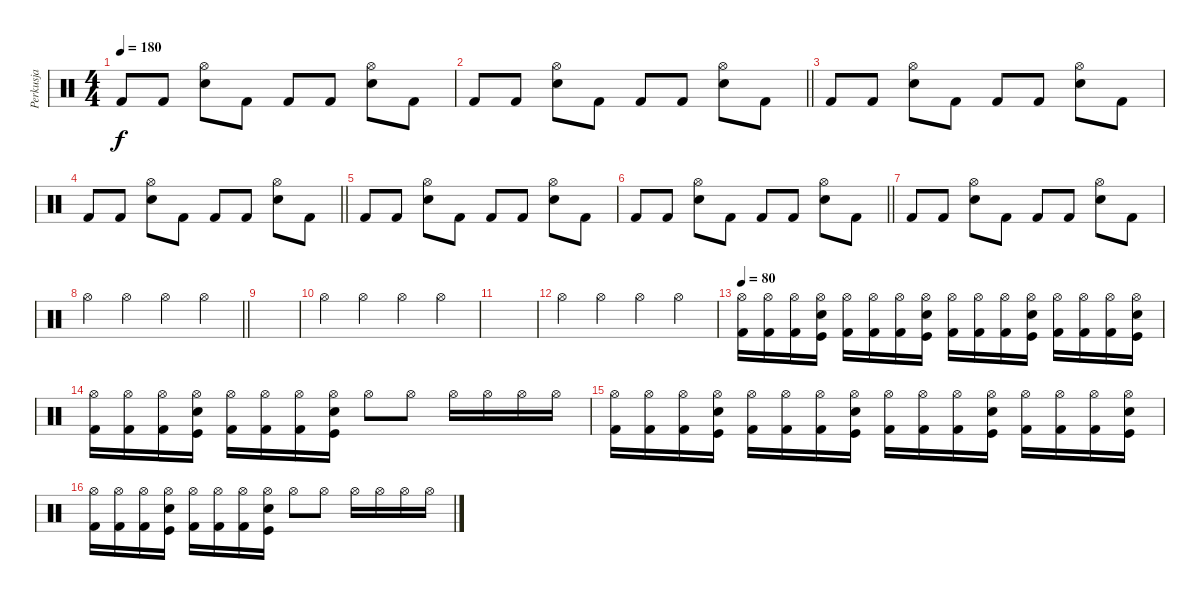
\track ("Perkusja" "Perkusja") {instrument percussion}
\staff {score}
\articulation defaults
\ts (4 4)
\tempo 180
\clef neutral
\ks c "Kick (hit) 2".8{dy f} "Kick (hit) 2".8
("Snare (hit) 2" "Hi-Hat (open)").8 "Kick (hit) 2".8 "Kick (hit) 2".8 "Kick (hit) 2".8 ("Snare (hit) 2" "Hi-Hat (open)").8 "Kick (hit) 2".8 |
\barLineRight lightlight "Kick (hit) 2".8 "Kick (hit) 2".8
("Snare (hit) 2" "Hi-Hat (open)").8 "Kick (hit) 2".8 "Kick (hit) 2".8 "Kick (hit) 2".8 ("Snare (hit) 2" "Hi-Hat (open)").8 "Kick (hit) 2".8 |
"Kick (hit) 2".8 "Kick (hit) 2".8 ("Snare (hit) 2" "Hi-Hat (open)").8 "Kick (hit) 2".8 "Kick (hit) 2".8 "Kick (hit) 2".8 ("Snare (hit) 2" "Hi-Hat (open)").8 "Kick (hit) 2".8 |
\barLineRight lightlight "Kick (hit) 2".8 "Kick (hit) 2".8
("Snare (hit) 2" "Hi-Hat (open)").8 "Kick (hit) 2".8 "Kick (hit) 2".8 "Kick (hit) 2".8 ("Snare (hit) 2" "Hi-Hat (open)").8 "Kick (hit) 2".8 |
"Kick (hit) 2".8 "Kick (hit) 2".8 ("Snare (hit) 2" "Hi-Hat (open)").8 "Kick (hit) 2".8 "Kick (hit) 2".8 "Kick (hit) 2".8 ("Snare (hit) 2" "Hi-Hat (open)").8 "Kick (hit) 2".8 |
\barLineRight lightlight "Kick (hit) 2".8 "Kick (hit) 2".8
("Snare (hit) 2" "Hi-Hat (open)").8 "Kick (hit) 2".8 "Kick (hit) 2".8 "Kick (hit) 2".8 ("Snare (hit) 2" "Hi-Hat (open)").8 "Kick (hit) 2".8 |
"Kick (hit) 2".8 "Kick (hit) 2".8 ("Snare (hit) 2" "Hi-Hat (open)").8 "Kick (hit) 2".8 "Kick (hit) 2".8 "Kick (hit) 2".8 ("Snare (hit) 2" "Hi-Hat (open)").8 "Kick (hit) 2".8 |
\barLineRight lightlight "Hi-Hat (open)".4 "Hi-Hat (open)".4 "Hi-Hat (open)".4 "Hi-Hat (open)".4
|
|
"Hi-Hat (open)".4 "Hi-Hat (open)".4 "Hi-Hat (open)".4 "Hi-Hat (open)".4 |
|
"Hi-Hat (open)".4 "Hi-Hat (open)".4 "Hi-Hat (open)".4 "Hi-Hat (open)".4 |
\tempo 80
("Kick (hit) 2" "Hi-Hat (open)").16 ("Kick (hit) 2" "Hi-Hat (open)").16 ("Kick (hit) 2" "Hi-Hat (open)").16 ("Snare (hit) 2" "Hi-Hat (open)" "Kick (hit)").16 ("Kick (hit) 2" "Hi-Hat (open)").16 ("Kick (hit) 2" "Hi-Hat (open)").16 ("Kick (hit) 2" "Hi-Hat (open)").16 ("Snare (hit) 2" "Hi-Hat (open)" "Kick (hit)").16 ("Kick (hit) 2" "Hi-Hat (open)").16 ("Kick (hit) 2" "Hi-Hat (open)").16 ("Kick (hit) 2" "Hi-Hat (open)").16 ("Snare (hit) 2" "Hi-Hat (open)" "Kick (hit)").16 ("Kick (hit) 2" "Hi-Hat (open)").16 ("Kick (hit) 2" "Hi-Hat (open)").16 ("Kick (hit) 2" "Hi-Hat (open)").16 ("Snare (hit) 2" "Hi-Hat (open)" "Kick (hit)").16 |
("Kick (hit) 2" "Hi-Hat (open)").16 ("Kick (hit) 2" "Hi-Hat (open)").16 ("Kick (hit) 2" "Hi-Hat (open)").16 ("Snare (hit) 2" "Hi-Hat (open)" "Kick (hit)").16 ("Kick (hit) 2" "Hi-Hat (open)").16 ("Kick (hit) 2" "Hi-Hat (open)").16 ("Kick (hit) 2" "Hi-Hat (open)").16 ("Snare (hit) 2" "Hi-Hat (open)" "Kick (hit)").16 "Hi-Hat (open)".8 "Hi-Hat (open)".8 "Hi-Hat (open)".16 "Hi-Hat (open)".16 "Hi-Hat (open)".16 "Hi-Hat (open)".16 |
("Kick (hit) 2" "Hi-Hat (open)").16 ("Kick (hit) 2" "Hi-Hat (open)").16 ("Kick (hit) 2" "Hi-Hat (open)").16 ("Snare (hit) 2" "Hi-Hat (open)" "Kick (hit)").16 ("Kick (hit) 2" "Hi-Hat (open)").16 ("Kick (hit) 2" "Hi-Hat (open)").16 ("Kick (hit) 2" "Hi-Hat (open)").16 ("Snare (hit) 2" "Hi-Hat (open)" "Kick (hit)").16 ("Kick (hit) 2" "Hi-Hat (open)").16 ("Kick (hit) 2" "Hi-Hat (open)").16 ("Kick (hit) 2" "Hi-Hat (open)").16 ("Snare (hit) 2" "Hi-Hat (open)" "Kick (hit)").16 ("Kick (hit) 2" "Hi-Hat (open)").16 ("Kick (hit) 2" "Hi-Hat (open)").16 ("Kick (hit) 2" "Hi-Hat (open)").16 ("Snare (hit) 2" "Hi-Hat (open)" "Kick (hit)").16 |
("Kick (hit) 2" "Hi-Hat (open)").16 ("Kick (hit) 2" "Hi-Hat (open)").16 ("Kick (hit) 2" "Hi-Hat (open)").16 ("Snare (hit) 2" "Hi-Hat (open)" "Kick (hit)").16 ("Kick (hit) 2" "Hi-Hat (open)").16 ("Kick (hit) 2" "Hi-Hat (open)").16 ("Kick (hit) 2" "Hi-Hat (open)").16 ("Snare (hit) 2" "Hi-Hat (open)" "Kick (hit)").16 "Hi-Hat (open)".8 "Hi-Hat (open)".8 "Hi-Hat (open)".16 "Hi-Hat (open)".16 "Hi-Hat (open)".16 "Hi-Hat (open)".16
